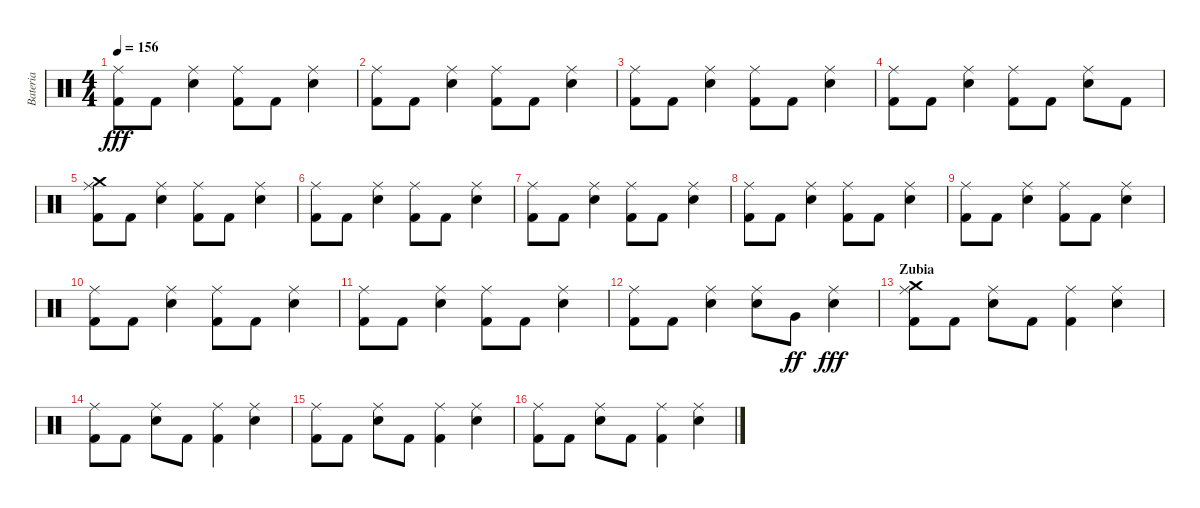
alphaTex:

\track ("Bateria" "Bateria") {instrument percussion}
\staff {score}
\articulation defaults
\ts (4 4)
\tempo 156
\clef neutral
\ks c
("Ride (middle)" "Kick (hit) 2").8{dy fff} "Kick (hit) 2".8 ("Ride (middle)" "Electric Snare (hit)").4 ("Ride (middle)" "Kick (hit) 2").8 "Kick (hit) 2".8 ("Ride (middle)" "Electric Snare (hit)").4 |
("Ride (middle)" "Kick (hit) 2").8 "Kick (hit) 2".8 ("Ride (middle)" "Electric Snare (hit)").4 ("Ride (middle)" "Kick (hit) 2").8 "Kick (hit) 2".8 ("Ride (middle)" "Electric Snare (hit)").4 |
("Ride (middle)" "Kick (hit) 2").8 "Kick (hit) 2".8 ("Ride (middle)" "Electric Snare (hit)").4 ("Ride (middle)" "Kick (hit) 2").8 "Kick (hit) 2".8 ("Ride (middle)" "Electric Snare (hit)").4 |
("Ride (middle)" "Kick (hit) 2").8 "Kick (hit) 2".8 ("Ride (middle)" "Electric Snare (hit)").4 ("Ride (middle)" "Kick (hit) 2").8 "Kick (hit) 2".8 ("Ride (middle)" "Electric Snare (hit)").8 "Kick (hit) 2".8 |
("Ride (middle)" "Kick (hit) 2" "Crash medium (hit)").8 "Kick (hit) 2".8 ("Ride (middle)" "Electric Snare (hit)").4 ("Ride (middle)" "Kick (hit) 2").8 "Kick (hit) 2".8 ("Ride (middle)" "Electric Snare (hit)").4 |
("Ride (middle)" "Kick (hit) 2").8 "Kick (hit) 2".8 ("Ride (middle)" "Electric Snare (hit)").4 ("Ride (middle)" "Kick (hit) 2").8 "Kick (hit) 2".8 ("Ride (middle)" "Electric Snare (hit)").4 |
("Ride (middle)" "Kick (hit) 2").8 "Kick (hit) 2".8 ("Ride (middle)" "Electric Snare (hit)").4 ("Ride (middle)" "Kick (hit) 2").8 "Kick (hit) 2".8 ("Ride (middle)" "Electric Snare (hit)").4 |
("Ride (middle)" "Kick (hit) 2").8 "Kick (hit) 2".8 ("Ride (middle)" "Electric Snare (hit)").4 ("Ride (middle)" "Kick (hit) 2").8 "Kick (hit) 2".8 ("Ride (middle)" "Electric Snare (hit)").4 |
("Ride (middle)" "Kick (hit) 2").8 "Kick (hit) 2".8 ("Ride (middle)" "Electric Snare (hit)").4 ("Ride (middle)" "Kick (hit) 2").8 "Kick (hit) 2".8 ("Ride (middle)" "Electric Snare (hit)").4 |
("Ride (middle)" "Kick (hit) 2").8 "Kick (hit) 2".8 ("Ride (middle)" "Electric Snare (hit)").4 ("Ride (middle)" "Kick (hit) 2").8 "Kick (hit) 2".8 ("Ride (middle)" "Electric Snare (hit)").4 |
("Ride (middle)" "Kick (hit) 2").8 "Kick (hit) 2".8 ("Ride (middle)" "Electric Snare (hit)").4 ("Ride (middle)" "Kick (hit) 2").8 "Kick (hit) 2".8 ("Ride (middle)" "Electric Snare (hit)").4 |
("Ride (middle)" "Kick (hit) 2").8 "Kick (hit) 2".8 ("Ride (middle)" "Electric Snare (hit)").4 ("Ride (middle)" "Electric Snare (hit)").8 "Very Low Tom (hit)".8{dy ff} ("Ride (middle)" "Electric Snare (hit)").4{dy fff} |
\section ("" "Zubia")
("Ride (middle)" "Kick (hit) 2" "Crash medium (hit)").8 "Kick (hit) 2".8 ("Ride (middle)" "Electric Snare (hit)").8 "Kick (hit) 2".8 ("Ride (middle)" "Kick (hit) 2").4 ("Ride (middle)" "Electric Snare (hit)").4 |
("Ride (middle)" "Kick (hit) 2").8 "Kick (hit) 2".8 ("Ride (middle)" "Electric Snare (hit)").8 "Kick (hit) 2".8 ("Ride (middle)" "Kick (hit) 2").4 ("Ride (middle)" "Electric Snare (hit)").4 |
("Ride (middle)" "Kick (hit) 2").8 "Kick (hit) 2".8 ("Ride (middle)" "Electric Snare (hit)").8 "Kick (hit) 2".8 ("Ride (middle)" "Kick (hit) 2").4 ("Ride (middle)" "Electric Snare (hit)").4 |
("Ride (middle)" "Kick (hit) 2").8 "Kick (hit) 2".8 ("Ride (middle)" "Electric Snare (hit)").8 "Kick (hit) 2".8 ("Ride (middle)" "Kick (hit) 2").4 ("Ride (middle)" "Electric Snare (hit)").4
